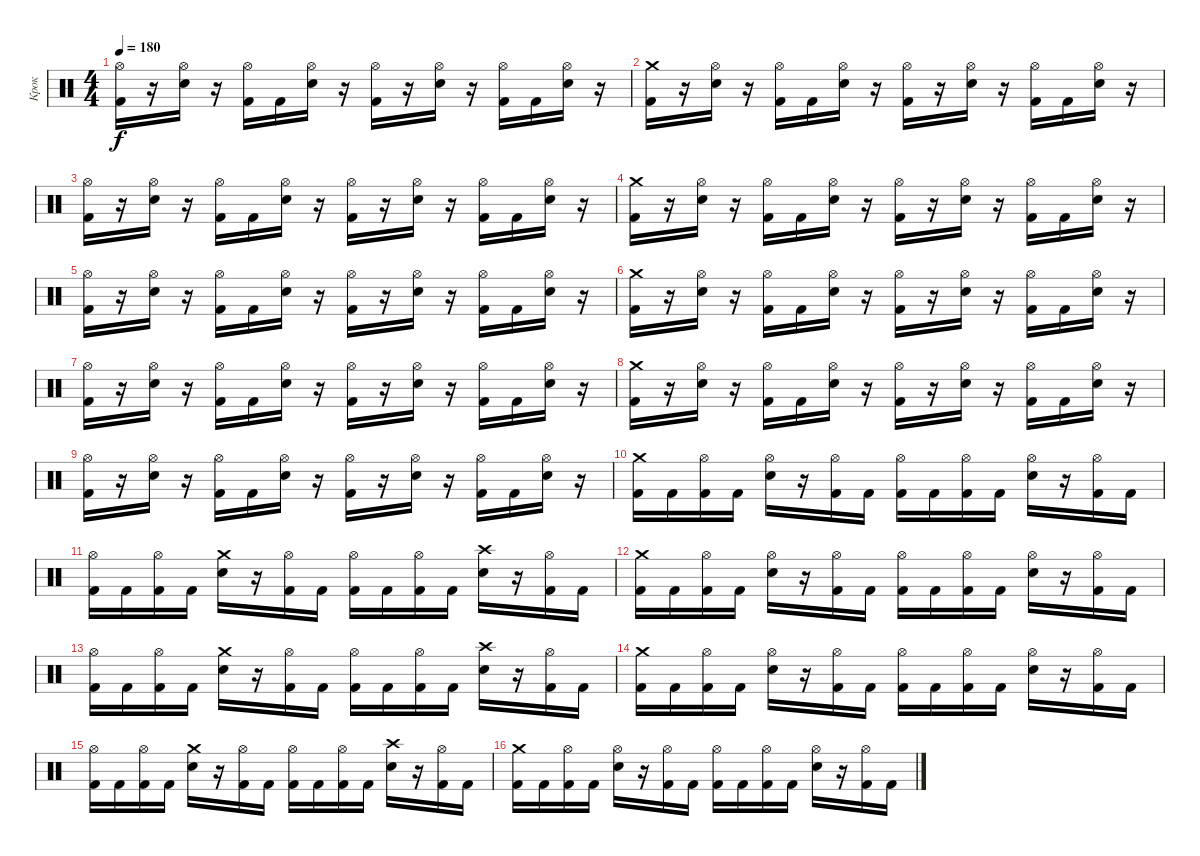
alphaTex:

\track ("Крок" "Крок") {instrument percussion}
\staff {score}
\articulation defaults
\ts (4 4)
\tempo 180
\clef neutral
\ks c
("Kick (hit) 2" "Hi-Hat (open)").16{dy f} r.16 ("Electric Snare (hit)" "Hi-Hat (open)").16 r.16 ("Kick (hit) 2" "Hi-Hat (open)").16 "Kick (hit) 2".16 ("Electric Snare (hit)" "Hi-Hat (open)").16 r.16 ("Kick (hit) 2" "Hi-Hat (open)").16 r.16 ("Electric Snare (hit)" "Hi-Hat (open)").16 r.16 ("Kick (hit) 2" "Hi-Hat (open)").16 "Kick (hit) 2".16 ("Electric Snare (hit)" "Hi-Hat (open)").16 r.16 |
("Kick (hit) 2" "Crash medium (hit)").16 r.16 ("Electric Snare (hit)" "Hi-Hat (open)").16 r.16 ("Kick (hit) 2" "Hi-Hat (open)").16 "Kick (hit) 2".16 ("Electric Snare (hit)" "Hi-Hat (open)").16 r.16 ("Kick (hit) 2" "Hi-Hat (open)").16 r.16 ("Electric Snare (hit)" "Hi-Hat (open)").16 r.16 ("Kick (hit) 2" "Hi-Hat (open)").16 "Kick (hit) 2".16 ("Electric Snare (hit)" "Hi-Hat (open)").16 r.16 |
("Kick (hit) 2" "Hi-Hat (open)").16 r.16 ("Electric Snare (hit)" "Hi-Hat (open)").16 r.16 ("Kick (hit) 2" "Hi-Hat (open)").16 "Kick (hit) 2".16 ("Electric Snare (hit)" "Hi-Hat (open)").16 r.16 ("Kick (hit) 2" "Hi-Hat (open)").16 r.16 ("Electric Snare (hit)" "Hi-Hat (open)").16 r.16 ("Kick (hit) 2" "Hi-Hat (open)").16 "Kick (hit) 2".16 ("Electric Snare (hit)" "Hi-Hat (open)").16 r.16 |
("Kick (hit) 2" "Crash medium (hit)").16 r.16 ("Electric Snare (hit)" "Hi-Hat (open)").16 r.16 ("Kick (hit) 2" "Hi-Hat (open)").16 "Kick (hit) 2".16 ("Electric Snare (hit)" "Hi-Hat (open)").16 r.16 ("Kick (hit) 2" "Hi-Hat (open)").16 r.16 ("Electric Snare (hit)" "Hi-Hat (open)").16 r.16 ("Kick (hit) 2" "Hi-Hat (open)").16 "Kick (hit) 2".16 ("Electric Snare (hit)" "Hi-Hat (open)").16 r.16 |
("Kick (hit) 2" "Hi-Hat (open)").16 r.16 ("Electric Snare (hit)" "Hi-Hat (open)").16 r.16 ("Kick (hit) 2" "Hi-Hat (open)").16 "Kick (hit) 2".16 ("Electric Snare (hit)" "Hi-Hat (open)").16 r.16 ("Kick (hit) 2" "Hi-Hat (open)").16 r.16 ("Electric Snare (hit)" "Hi-Hat (open)").16 r.16 ("Kick (hit) 2" "Hi-Hat (open)").16 "Kick (hit) 2".16 ("Electric Snare (hit)" "Hi-Hat (open)").16 r.16 |
("Kick (hit) 2" "Crash medium (hit)").16 r.16 ("Electric Snare (hit)" "Hi-Hat (open)").16 r.16 ("Kick (hit) 2" "Hi-Hat (open)").16 "Kick (hit) 2".16 ("Electric Snare (hit)" "Hi-Hat (open)").16 r.16 ("Kick (hit) 2" "Hi-Hat (open)").16 r.16 ("Electric Snare (hit)" "Hi-Hat (open)").16 r.16 ("Kick (hit) 2" "Hi-Hat (open)").16 "Kick (hit) 2".16 ("Electric Snare (hit)" "Hi-Hat (open)").16 r.16 |
("Kick (hit) 2" "Hi-Hat (open)").16 r.16 ("Electric Snare (hit)" "Hi-Hat (open)").16 r.16 ("Kick (hit) 2" "Hi-Hat (open)").16 "Kick (hit) 2".16 ("Electric Snare (hit)" "Hi-Hat (open)").16 r.16 ("Kick (hit) 2" "Hi-Hat (open)").16 r.16 ("Electric Snare (hit)" "Hi-Hat (open)").16 r.16 ("Kick (hit) 2" "Hi-Hat (open)").16 "Kick (hit) 2".16 ("Electric Snare (hit)" "Hi-Hat (open)").16 r.16 |
("Kick (hit) 2" "Crash medium (hit)").16 r.16 ("Electric Snare (hit)" "Hi-Hat (open)").16 r.16 ("Kick (hit) 2" "Hi-Hat (open)").16 "Kick (hit) 2".16 ("Electric Snare (hit)" "Hi-Hat (open)").16 r.16 ("Kick (hit) 2" "Hi-Hat (open)").16 r.16 ("Electric Snare (hit)" "Hi-Hat (open)").16 r.16 ("Kick (hit) 2" "Hi-Hat (open)").16 "Kick (hit) 2".16 ("Electric Snare (hit)" "Hi-Hat (open)").16 r.16 |
("Kick (hit) 2" "Hi-Hat (open)").16 r.16 ("Electric Snare (hit)" "Hi-Hat (open)").16 r.16 ("Kick (hit) 2" "Hi-Hat (open)").16 "Kick (hit) 2".16 ("Electric Snare (hit)" "Hi-Hat (open)").16 r.16 ("Kick (hit) 2" "Hi-Hat (open)").16 r.16 ("Electric Snare (hit)" "Hi-Hat (open)").16 r.16 ("Kick (hit) 2" "Hi-Hat (open)").16 "Kick (hit) 2".16 ("Electric Snare (hit)" "Hi-Hat (open)").16 r.16 |
("Kick (hit) 2" "Crash medium (hit)").16 "Kick (hit) 2".16 ("Kick (hit) 2" "Hi-Hat (open)").16 "Kick (hit) 2".16 ("Electric Snare (hit)" "Hi-Hat (open)").16 r.16 ("Kick (hit) 2" "Hi-Hat (open)").16 "Kick (hit) 2".16 ("Kick (hit) 2" "Hi-Hat (open)").16 "Kick (hit) 2".16 ("Kick (hit) 2" "Hi-Hat (open)").16 "Kick (hit) 2".16 ("Electric Snare (hit)" "Hi-Hat (open)").16 r.16 ("Kick (hit) 2" "Hi-Hat (open)").16 "Kick (hit) 2".16 |
("Kick (hit) 2" "Hi-Hat (open)").16 "Kick (hit) 2".16 ("Kick (hit) 2" "Hi-Hat (open)").16 "Kick (hit) 2".16 ("Electric Snare (hit)" "Crash medium (hit)").16 r.16 ("Kick (hit) 2" "Hi-Hat (open)").16 "Kick (hit) 2".16 ("Kick (hit) 2" "Hi-Hat (open)").16 "Kick (hit) 2".16 ("Kick (hit) 2" "Hi-Hat (open)").16 "Kick (hit) 2".16 ("Electric Snare (hit)" "Crash high (hit)").16 r.16 ("Kick (hit) 2" "Hi-Hat (open)").16 "Kick (hit) 2".16 |
("Kick (hit) 2" "Crash medium (hit)").16 "Kick (hit) 2".16 ("Kick (hit) 2" "Hi-Hat (open)").16 "Kick (hit) 2".16 ("Electric Snare (hit)" "Hi-Hat (open)").16 r.16 ("Kick (hit) 2" "Hi-Hat (open)").16 "Kick (hit) 2".16 ("Kick (hit) 2" "Hi-Hat (open)").16 "Kick (hit) 2".16 ("Kick (hit) 2" "Hi-Hat (open)").16 "Kick (hit) 2".16 ("Electric Snare (hit)" "Hi-Hat (open)").16 r.16 ("Kick (hit) 2" "Hi-Hat (open)").16 "Kick (hit) 2".16 |
("Kick (hit) 2" "Hi-Hat (open)").16 "Kick (hit) 2".16 ("Kick (hit) 2" "Hi-Hat (open)").16 "Kick (hit) 2".16 ("Electric Snare (hit)" "Crash medium (hit)").16 r.16 ("Kick (hit) 2" "Hi-Hat (open)").16 "Kick (hit) 2".16 ("Kick (hit) 2" "Hi-Hat (open)").16 "Kick (hit) 2".16 ("Kick (hit) 2" "Hi-Hat (open)").16 "Kick (hit) 2".16 ("Electric Snare (hit)" "Crash high (hit)").16 r.16 ("Kick (hit) 2" "Hi-Hat (open)").16 "Kick (hit) 2".16 |
("Kick (hit) 2" "Crash medium (hit)").16 "Kick (hit) 2".16 ("Kick (hit) 2" "Hi-Hat (open)").16 "Kick (hit) 2".16 ("Electric Snare (hit)" "Hi-Hat (open)").16 r.16 ("Kick (hit) 2" "Hi-Hat (open)").16 "Kick (hit) 2".16 ("Kick (hit) 2" "Hi-Hat (open)").16 "Kick (hit) 2".16 ("Kick (hit) 2" "Hi-Hat (open)").16 "Kick (hit) 2".16 ("Electric Snare (hit)" "Hi-Hat (open)").16 r.16 ("Kick (hit) 2" "Hi-Hat (open)").16 "Kick (hit) 2".16 |
("Kick (hit) 2" "Hi-Hat (open)").16 "Kick (hit) 2".16 ("Kick (hit) 2" "Hi-Hat (open)").16 "Kick (hit) 2".16 ("Electric Snare (hit)" "Crash medium (hit)").16 r.16 ("Kick (hit) 2" "Hi-Hat (open)").16 "Kick (hit) 2".16 ("Kick (hit) 2" "Hi-Hat (open)").16 "Kick (hit) 2".16 ("Kick (hit) 2" "Hi-Hat (open)").16 "Kick (hit) 2".16 ("Electric Snare (hit)" "Crash high (hit)").16 r.16 ("Kick (hit) 2" "Hi-Hat (open)").16 "Kick (hit) 2".16 |
("Kick (hit) 2" "Crash medium (hit)").16 "Kick (hit) 2".16 ("Kick (hit) 2" "Hi-Hat (open)").16 "Kick (hit) 2".16 ("Electric Snare (hit)" "Hi-Hat (open)").16 r.16 ("Kick (hit) 2" "Hi-Hat (open)").16 "Kick (hit) 2".16 ("Kick (hit) 2" "Hi-Hat (open)").16 "Kick (hit) 2".16 ("Kick (hit) 2" "Hi-Hat (open)").16 "Kick (hit) 2".16 ("Electric Snare (hit)" "Hi-Hat (open)").16 r.16 ("Kick (hit) 2" "Hi-Hat (open)").16 "Kick (hit) 2".16
